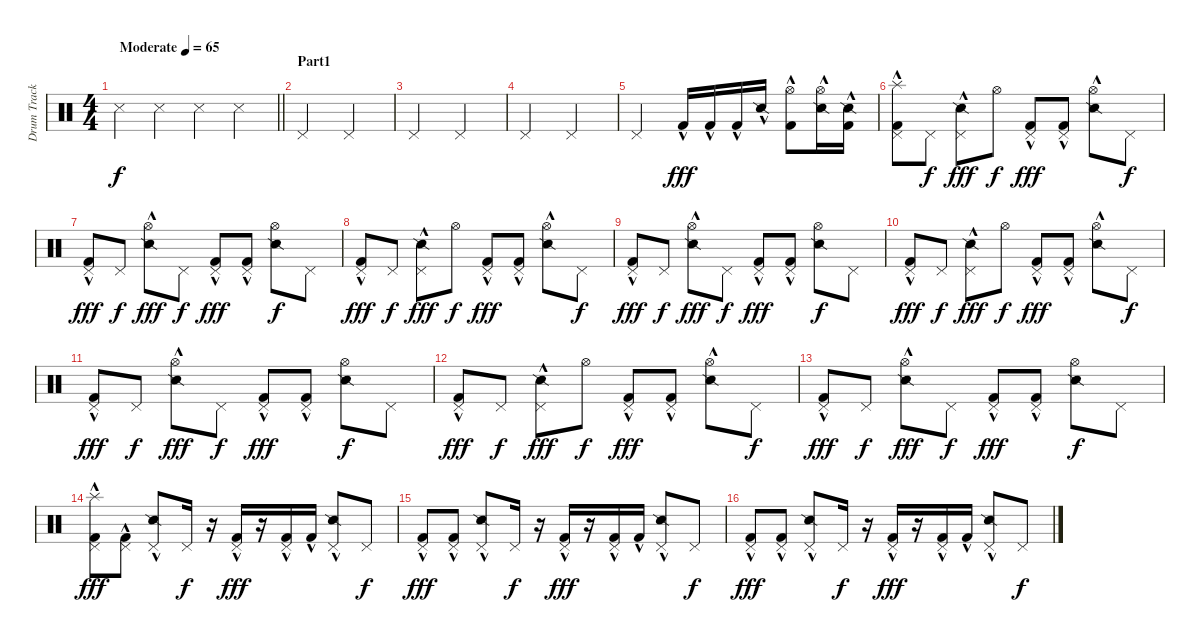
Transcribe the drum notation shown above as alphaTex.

\track ("Drum Track" "Drum Track") {instrument percussion}
\staff {score}
\articulation defaults
\ts (4 4)
\tempo (65 "Moderate")
\clef neutral
\barLineRight lightlight
\ks c "Snare (side stick) 3".4{dy f} "Snare (side stick) 3".4 "Snare (side stick) 3".4 "Snare (side stick) 3".4
|
\section ("" "Part1")
"Pedal Hi-Hat (hit)".2 "Pedal Hi-Hat (hit)".2 |
"Pedal Hi-Hat (hit)".2 "Pedal Hi-Hat (hit)".2 |
"Pedal Hi-Hat (hit)".2 "Pedal Hi-Hat (hit)".2 |
"Pedal Hi-Hat (hit)".2 "Kick (hit) 2"{hac}.16{dy fff} "Kick (hit) 2"{hac}.16 "Kick (hit) 2"{hac}.16 "Snare (side stick) 2"{hac}.16 ("Hi-Hat (open)" "Kick (hit) 2"{hac}).8 ("Hi-Hat (open)" "Snare (side stick) 2"{hac}).16 ("Snare (side stick) 2"{hac} "Kick (hit) 2"{hac}).16 |
("Splash (hit)" "Pedal Hi-Hat (hit)" "Kick (hit) 2"{hac}).8 "Pedal Hi-Hat (hit)".8{dy f} ("Pedal Hi-Hat (hit)" "Snare (side stick) 2"{hac}).8{dy fff} "Hi-Hat (open)".8{dy f} ("Pedal Hi-Hat (hit)" "Kick (hit) 2"{hac}).8{dy fff} ("Pedal Hi-Hat (hit)" "Kick (hit) 2"{hac}).8 ("Hi-Hat (open)" "Snare (side stick) 2"{hac}).8 "Pedal Hi-Hat (hit)".8{dy f} |
("Pedal Hi-Hat (hit)" "Kick (hit) 2"{hac}).8{dy fff} "Pedal Hi-Hat (hit)".8{dy f} ("Hi-Hat (open)" "Snare (side stick) 2"{hac}).8{dy fff} "Pedal Hi-Hat (hit)".8{dy f} ("Pedal Hi-Hat (hit)" "Kick (hit) 2"{hac}).8{dy fff} ("Pedal Hi-Hat (hit)" "Kick (hit) 2"{hac}).8 ("Hi-Hat (open)" "Snare (side stick) 2").8{dy f} "Pedal Hi-Hat (hit)".8 |
("Pedal Hi-Hat (hit)" "Kick (hit) 2"{hac}).8{dy fff} "Pedal Hi-Hat (hit)".8{dy f} ("Pedal Hi-Hat (hit)" "Snare (side stick) 2"{hac}).8{dy fff} "Hi-Hat (open)".8{dy f} ("Pedal Hi-Hat (hit)" "Kick (hit) 2"{hac}).8{dy fff} ("Pedal Hi-Hat (hit)" "Kick (hit) 2"{hac}).8 ("Hi-Hat (open)" "Snare (side stick) 2"{hac}).8 "Pedal Hi-Hat (hit)".8{dy f} |
("Pedal Hi-Hat (hit)" "Kick (hit) 2"{hac}).8{dy fff} "Pedal Hi-Hat (hit)".8{dy f} ("Hi-Hat (open)" "Snare (side stick) 2"{hac}).8{dy fff} "Pedal Hi-Hat (hit)".8{dy f} ("Pedal Hi-Hat (hit)" "Kick (hit) 2"{hac}).8{dy fff} ("Pedal Hi-Hat (hit)" "Kick (hit) 2"{hac}).8 ("Hi-Hat (open)" "Snare (side stick) 2").8{dy f} "Pedal Hi-Hat (hit)".8 |
("Pedal Hi-Hat (hit)" "Kick (hit) 2"{hac}).8{dy fff} "Pedal Hi-Hat (hit)".8{dy f} ("Pedal Hi-Hat (hit)" "Snare (side stick) 2"{hac}).8{dy fff} "Hi-Hat (open)".8{dy f} ("Pedal Hi-Hat (hit)" "Kick (hit) 2"{hac}).8{dy fff} ("Pedal Hi-Hat (hit)" "Kick (hit) 2"{hac}).8 ("Hi-Hat (open)" "Snare (side stick) 2"{hac}).8 "Pedal Hi-Hat (hit)".8{dy f} |
("Pedal Hi-Hat (hit)" "Kick (hit) 2"{hac}).8{dy fff} "Pedal Hi-Hat (hit)".8{dy f} ("Hi-Hat (open)" "Snare (side stick) 2"{hac}).8{dy fff} "Pedal Hi-Hat (hit)".8{dy f} ("Pedal Hi-Hat (hit)" "Kick (hit) 2"{hac}).8{dy fff} ("Pedal Hi-Hat (hit)" "Kick (hit) 2"{hac}).8 ("Hi-Hat (open)" "Snare (side stick) 2").8{dy f} "Pedal Hi-Hat (hit)".8 |
("Pedal Hi-Hat (hit)" "Kick (hit) 2"{hac}).8{dy fff} "Pedal Hi-Hat (hit)".8{dy f} ("Pedal Hi-Hat (hit)" "Snare (side stick) 2"{hac}).8{dy fff} "Hi-Hat (open)".8{dy f} ("Pedal Hi-Hat (hit)" "Kick (hit) 2"{hac}).8{dy fff} ("Pedal Hi-Hat (hit)" "Kick (hit) 2"{hac}).8 ("Hi-Hat (open)" "Snare (side stick) 2"{hac}).8 "Pedal Hi-Hat (hit)".8{dy f} |
("Pedal Hi-Hat (hit)" "Kick (hit) 2"{hac}).8{dy fff} "Pedal Hi-Hat (hit)".8{dy f} ("Hi-Hat (open)" "Snare (side stick) 2"{hac}).8{dy fff} "Pedal Hi-Hat (hit)".8{dy f} ("Pedal Hi-Hat (hit)" "Kick (hit) 2"{hac}).8{dy fff} ("Pedal Hi-Hat (hit)" "Kick (hit) 2"{hac}).8 ("Hi-Hat (open)" "Snare (side stick) 2").8{dy f} "Pedal Hi-Hat (hit)".8 |
("Splash (hit)" "Pedal Hi-Hat (hit)" "Kick (hit) 2"{hac}).8{dy fff} ("Pedal Hi-Hat (hit)" "Kick (hit) 2"{hac}).8 ("Pedal Hi-Hat (hit)" "Snare (side stick) 2"{hac}).8 "Pedal Hi-Hat (hit)".16{dy f} r.16 ("Pedal Hi-Hat (hit)" "Kick (hit) 2"{hac}).16{dy fff} r.16 ("Pedal Hi-Hat (hit)" "Kick (hit) 2"{hac}).16 "Kick (hit) 2"{hac}.16 ("Pedal Hi-Hat (hit)" "Snare (side stick) 2"{hac}).8 "Pedal Hi-Hat (hit)".8{dy f} |
("Pedal Hi-Hat (hit)" "Kick (hit) 2"{hac}).8{dy fff} ("Pedal Hi-Hat (hit)" "Kick (hit) 2"{hac}).8 ("Pedal Hi-Hat (hit)" "Snare (side stick) 2"{hac}).8 "Pedal Hi-Hat (hit)".16{dy f} r.16 ("Pedal Hi-Hat (hit)" "Kick (hit) 2"{hac}).16{dy fff} r.16 ("Pedal Hi-Hat (hit)" "Kick (hit) 2"{hac}).16 "Kick (hit) 2"{hac}.16 ("Pedal Hi-Hat (hit)" "Snare (side stick) 2"{hac}).8 "Pedal Hi-Hat (hit)".8{dy f} |
("Pedal Hi-Hat (hit)" "Kick (hit) 2"{hac}).8{dy fff} ("Pedal Hi-Hat (hit)" "Kick (hit) 2"{hac}).8 ("Pedal Hi-Hat (hit)" "Snare (side stick) 2"{hac}).8 "Pedal Hi-Hat (hit)".16{dy f} r.16 ("Pedal Hi-Hat (hit)" "Kick (hit) 2"{hac}).16{dy fff} r.16 ("Pedal Hi-Hat (hit)" "Kick (hit) 2"{hac}).16 "Kick (hit) 2"{hac}.16 ("Pedal Hi-Hat (hit)" "Snare (side stick) 2"{hac}).8 "Pedal Hi-Hat (hit)".8{dy f}
